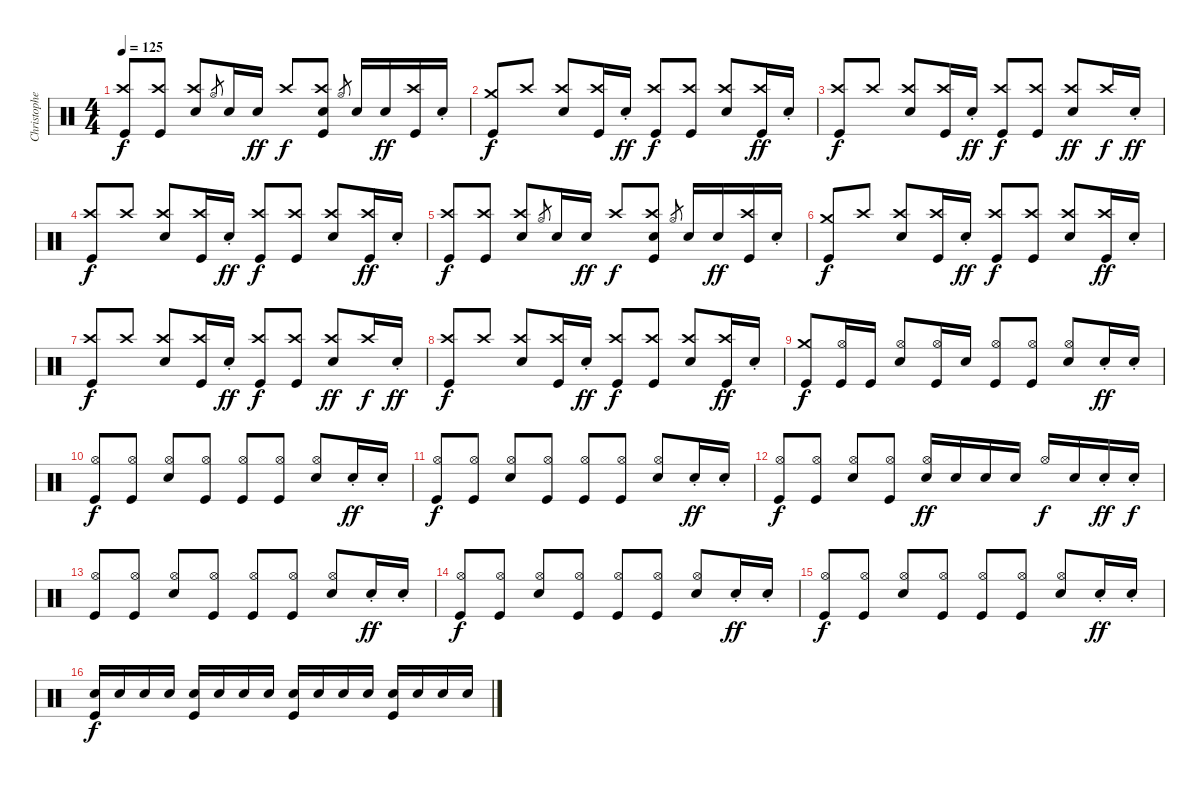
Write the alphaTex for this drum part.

\track ("Christopher Guanlao - Drums" "Christophe") {instrument percussion}
\staff {score}
\articulation defaults
\ts (4 4)
\tempo 125
\clef neutral
\ks c
("Crash high (hit)" "Kick (hit)").8{dy f beam Up} ("Crash high (hit)" "Kick (hit)").8{beam Up} ("Crash high (hit)" "Electric Snare (hit)").8{beam Up} "Hi-Hat (open)".8{gr} "Electric Snare (hit)".16{beam Up} "Electric Snare (hit)".16{dy ff beam Up} "Crash high (hit)".8{dy f beam Up} ("Crash high (hit)" "Electric Snare (hit)" "Kick (hit)").8{beam Up} "Hi-Hat (open)".8{gr} "Electric Snare (hit)".16{beam Up} "Electric Snare (hit)".16{dy ff beam Up} ("Crash high (hit)" "Kick (hit)").16{beam Up} "Electric Snare (hit)"{st}.16{beam Up} |
("Crash medium (hit)" "Kick (hit)").8{dy f beam Up} "Crash high (hit)".8{beam Up} ("Crash high (hit)" "Electric Snare (hit)").8{beam Up} ("Crash high (hit)" "Kick (hit)").16{beam Up} "Electric Snare (hit)"{st}.16{dy ff beam Up} ("Crash high (hit)" "Kick (hit)").8{dy f beam Up} ("Crash high (hit)" "Kick (hit)").8{beam Up} ("Crash high (hit)" "Electric Snare (hit)").8{beam Up} ("Crash high (hit)" "Kick (hit)").16{dy ff beam Up} "Electric Snare (hit)"{st}.16{beam Up} |
("Crash high (hit)" "Kick (hit)").8{dy f beam Up} "Crash high (hit)".8{beam Up} ("Crash high (hit)" "Electric Snare (hit)").8{beam Up} ("Crash high (hit)" "Kick (hit)").16{beam Up} "Electric Snare (hit)"{st}.16{dy ff beam Up} ("Crash high (hit)" "Kick (hit)").8{dy f beam Up} ("Crash high (hit)" "Kick (hit)").8{beam Up} ("Crash high (hit)" "Electric Snare (hit)").8{dy ff beam Up} "Crash high (hit)".16{dy f beam Up} "Electric Snare (hit)"{st}.16{dy ff beam Up} |
("Crash high (hit)" "Kick (hit)").8{dy f beam Up} "Crash high (hit)".8{beam Up} ("Crash high (hit)" "Electric Snare (hit)").8{beam Up} ("Crash high (hit)" "Kick (hit)").16{beam Up} "Electric Snare (hit)"{st}.16{dy ff beam Up} ("Crash high (hit)" "Kick (hit)").8{dy f beam Up} ("Crash high (hit)" "Kick (hit)").8{beam Up} ("Crash high (hit)" "Electric Snare (hit)").8{beam Up} ("Crash high (hit)" "Kick (hit)").16{dy ff beam Up} "Electric Snare (hit)"{st}.16{beam Up} |
("Crash high (hit)" "Kick (hit)").8{dy f beam Up} ("Crash high (hit)" "Kick (hit)").8{beam Up} ("Crash high (hit)" "Electric Snare (hit)").8{beam Up} "Hi-Hat (open)".8{gr} "Electric Snare (hit)".16{beam Up} "Electric Snare (hit)".16{dy ff beam Up} "Crash high (hit)".8{dy f beam Up} ("Crash high (hit)" "Electric Snare (hit)" "Kick (hit)").8{beam Up} "Hi-Hat (open)".8{gr} "Electric Snare (hit)".16{beam Up} "Electric Snare (hit)".16{dy ff beam Up} ("Crash high (hit)" "Kick (hit)").16{beam Up} "Electric Snare (hit)"{st}.16{beam Up} |
("Crash medium (hit)" "Kick (hit)").8{dy f beam Up} "Crash high (hit)".8{beam Up} ("Crash high (hit)" "Electric Snare (hit)").8{beam Up} ("Crash high (hit)" "Kick (hit)").16{beam Up} "Electric Snare (hit)"{st}.16{dy ff beam Up} ("Crash high (hit)" "Kick (hit)").8{dy f beam Up} ("Crash high (hit)" "Kick (hit)").8{beam Up} ("Crash high (hit)" "Electric Snare (hit)").8{beam Up} ("Crash high (hit)" "Kick (hit)").16{dy ff beam Up} "Electric Snare (hit)"{st}.16{beam Up} |
("Crash high (hit)" "Kick (hit)").8{dy f beam Up} "Crash high (hit)".8{beam Up} ("Crash high (hit)" "Electric Snare (hit)").8{beam Up} ("Crash high (hit)" "Kick (hit)").16{beam Up} "Electric Snare (hit)"{st}.16{dy ff beam Up} ("Crash high (hit)" "Kick (hit)").8{dy f beam Up} ("Crash high (hit)" "Kick (hit)").8{beam Up} ("Crash high (hit)" "Electric Snare (hit)").8{dy ff beam Up} "Crash high (hit)".16{dy f beam Up} "Electric Snare (hit)"{st}.16{dy ff beam Up} |
("Crash high (hit)" "Kick (hit)").8{dy f beam Up} "Crash high (hit)".8{beam Up} ("Crash high (hit)" "Electric Snare (hit)").8{beam Up} ("Crash high (hit)" "Kick (hit)").16{beam Up} "Electric Snare (hit)"{st}.16{dy ff beam Up} ("Crash high (hit)" "Kick (hit)").8{dy f beam Up} ("Crash high (hit)" "Kick (hit)").8{beam Up} ("Crash high (hit)" "Electric Snare (hit)").8{beam Up} ("Crash high (hit)" "Kick (hit)").16{dy ff beam Up} "Electric Snare (hit)"{st}.16{beam Up} |
("Crash medium (hit)" "Kick (hit)").8{dy f beam Up} ("Hi-Hat (open)" "Kick (hit)").16{beam Up} "Kick (hit)".16{beam Up} ("Hi-Hat (open)" "Electric Snare (hit)").8{beam Up} ("Hi-Hat (open)" "Kick (hit)").16{beam Up} "Electric Snare (hit)".16{beam Up} ("Hi-Hat (open)" "Kick (hit)").8{beam Up} ("Hi-Hat (open)" "Kick (hit)").8{beam Up} ("Hi-Hat (open)" "Electric Snare (hit)").8{beam Up} "Electric Snare (hit)"{st}.16{dy ff beam Up} "Electric Snare (hit)"{st}.16{beam Up} |
("Hi-Hat (open)" "Kick (hit)").8{dy f beam Up} ("Hi-Hat (open)" "Kick (hit)").8{beam Up} ("Hi-Hat (open)" "Electric Snare (hit)").8{beam Up} ("Hi-Hat (open)" "Kick (hit)").8{beam Up} ("Hi-Hat (open)" "Kick (hit)").8{beam Up} ("Hi-Hat (open)" "Kick (hit)").8{beam Up} ("Hi-Hat (open)" "Electric Snare (hit)").8{beam Up} "Electric Snare (hit)"{st}.16{dy ff beam Up} "Electric Snare (hit)"{st}.16{beam Up} |
("Hi-Hat (open)" "Kick (hit)").8{dy f beam Up} ("Hi-Hat (open)" "Kick (hit)").8{beam Up} ("Hi-Hat (open)" "Electric Snare (hit)").8{beam Up} ("Hi-Hat (open)" "Kick (hit)").8{beam Up} ("Hi-Hat (open)" "Kick (hit)").8{beam Up} ("Hi-Hat (open)" "Kick (hit)").8{beam Up} ("Hi-Hat (open)" "Electric Snare (hit)").8{beam Up} "Electric Snare (hit)"{st}.16{dy ff beam Up} "Electric Snare (hit)"{st}.16{beam Up} |
("Hi-Hat (open)" "Kick (hit)").8{dy f beam Up} ("Hi-Hat (open)" "Kick (hit)").8{beam Up} ("Hi-Hat (open)" "Electric Snare (hit)").8{beam Up} ("Hi-Hat (open)" "Kick (hit)").8{beam Up} ("Hi-Hat (open)" "Electric Snare (hit)").16{dy ff beam Up} "Electric Snare (hit)".16{beam Up} "Electric Snare (hit)".16{beam Up} "Electric Snare (hit)".16{beam Up} "Hi-Hat (open)".16{dy f beam Up} "Electric Snare (hit)".16{beam Up} "Electric Snare (hit)"{st}.16{dy ff beam Up} "Electric Snare (hit)"{st}.16{dy f} |
("Hi-Hat (open)" "Kick (hit)").8{beam Up} ("Hi-Hat (open)" "Kick (hit)").8{beam Up} ("Hi-Hat (open)" "Electric Snare (hit)").8{beam Up} ("Hi-Hat (open)" "Kick (hit)").8{beam Up} ("Hi-Hat (open)" "Kick (hit)").8{beam Up} ("Hi-Hat (open)" "Kick (hit)").8{beam Up} ("Hi-Hat (open)" "Electric Snare (hit)").8{beam Up} "Electric Snare (hit)"{st}.16{dy ff beam Up} "Electric Snare (hit)"{st}.16{beam Up} |
("Hi-Hat (open)" "Kick (hit)").8{dy f beam Up} ("Hi-Hat (open)" "Kick (hit)").8{beam Up} ("Hi-Hat (open)" "Electric Snare (hit)").8{beam Up} ("Hi-Hat (open)" "Kick (hit)").8{beam Up} ("Hi-Hat (open)" "Kick (hit)").8{beam Up} ("Hi-Hat (open)" "Kick (hit)").8{beam Up} ("Hi-Hat (open)" "Electric Snare (hit)").8{beam Up} "Electric Snare (hit)"{st}.16{dy ff beam Up} "Electric Snare (hit)"{st}.16{beam Up} |
("Hi-Hat (open)" "Kick (hit)").8{dy f beam Up} ("Hi-Hat (open)" "Kick (hit)").8{beam Up} ("Hi-Hat (open)" "Electric Snare (hit)").8{beam Up} ("Hi-Hat (open)" "Kick (hit)").8{beam Up} ("Hi-Hat (open)" "Kick (hit)").8{beam Up} ("Hi-Hat (open)" "Kick (hit)").8{beam Up} ("Hi-Hat (open)" "Electric Snare (hit)").8{beam Up} "Electric Snare (hit)"{st}.16{dy ff beam Up} "Electric Snare (hit)"{st}.16{beam Up} |
("Electric Snare (hit)" "Kick (hit)").16{dy f beam Up} "Electric Snare (hit)".16{beam Up} "Electric Snare (hit)".16{beam Up} "Electric Snare (hit)".16{beam Up} ("Electric Snare (hit)" "Kick (hit)").16{beam Up} "Electric Snare (hit)".16{beam Up} "Electric Snare (hit)".16{beam Up} "Electric Snare (hit)".16{beam Up} ("Electric Snare (hit)" "Kick (hit)").16{beam Up} "Electric Snare (hit)".16{beam Up} "Electric Snare (hit)".16{beam Up} "Electric Snare (hit)".16{beam Up} ("Electric Snare (hit)" "Kick (hit)").16{beam Up} "Electric Snare (hit)".16{beam Up} "Electric Snare (hit)".16{beam Up} "Electric Snare (hit)".16{beam Up}
